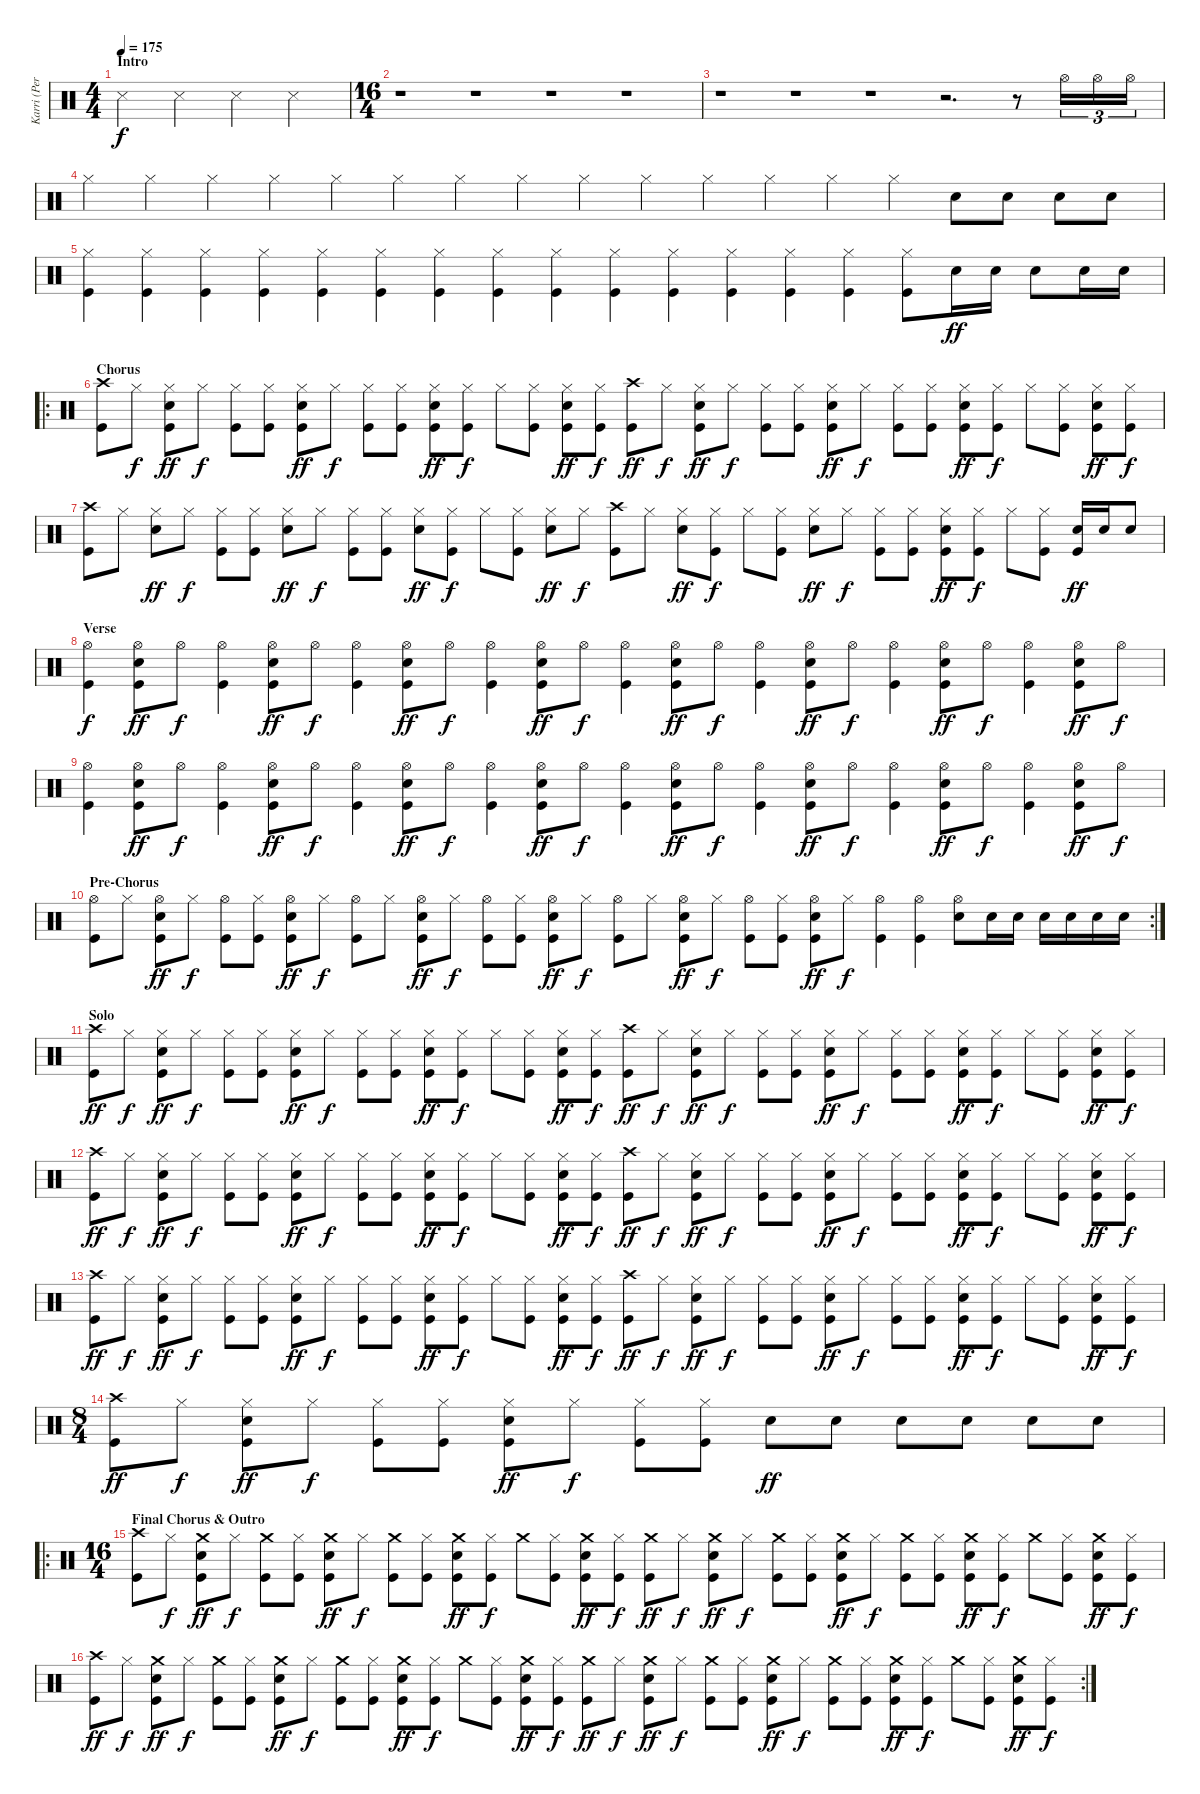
\track ("Karri (Percussion)" "Karri (Per") {instrument percussion}
\staff {score}
\articulation defaults
\ts (4 4)
\section ("" "Intro")
\tempo 175
\clef neutral
\ks c "Snare (side stick) 3".4{dy f} "Snare (side stick) 3".4 "Snare (side stick) 3".4 "Snare (side stick) 3".4
|
\ts (16 4)
r.1 r.1 r.1 r.1 |
r.1 r.1 r.1 r.2{d} r.8 "Hi-Hat (open)".16{tu (3 2)} "Hi-Hat (open)".16{tu (3 2)} "Hi-Hat (open)".16{tu (3 2)} |
"Hi-Hat (closed)".4 "Hi-Hat (closed)".4 "Hi-Hat (closed)".4 "Hi-Hat (closed)".4 "Hi-Hat (closed)".4 "Hi-Hat (closed)".4 "Hi-Hat (closed)".4 "Hi-Hat (closed)".4 "Hi-Hat (closed)".4 "Hi-Hat (closed)".4 "Hi-Hat (closed)".4 "Hi-Hat (closed)".4 "Hi-Hat (closed)".4 "Hi-Hat (closed)".4 "Snare (hit) 2".8 "Snare (hit) 2".8 "Snare (hit) 2".8 "Snare (hit) 2".8 |
("Hi-Hat (closed)" "Kick (hit)").4 ("Hi-Hat (closed)" "Kick (hit)").4 ("Hi-Hat (closed)" "Kick (hit)").4 ("Hi-Hat (closed)" "Kick (hit)").4 ("Hi-Hat (closed)" "Kick (hit)").4 ("Hi-Hat (closed)" "Kick (hit)").4 ("Hi-Hat (closed)" "Kick (hit)").4 ("Hi-Hat (closed)" "Kick (hit)").4 ("Hi-Hat (closed)" "Kick (hit)").4 ("Hi-Hat (closed)" "Kick (hit)").4 ("Hi-Hat (closed)" "Kick (hit)").4 ("Hi-Hat (closed)" "Kick (hit)").4 ("Hi-Hat (closed)" "Kick (hit)").4 ("Hi-Hat (closed)" "Kick (hit)").4 ("Hi-Hat (closed)" "Kick (hit)").8 "Snare (hit) 2".16{dy ff} "Snare (hit) 2".16 "Snare (hit) 2".8 "Snare (hit) 2".16 "Snare (hit) 2".16 |
\ro
\section ("" "Chorus")
("Crash high (hit)" "Kick (hit)").8 "Hi-Hat (closed)".8{dy f} ("Hi-Hat (closed)" "Snare (hit) 2" "Kick (hit)").8{dy ff} "Hi-Hat (closed)".8{dy f} ("Hi-Hat (closed)" "Kick (hit)").8 ("Hi-Hat (closed)" "Kick (hit)").8 ("Hi-Hat (closed)" "Snare (hit) 2" "Kick (hit)").8{dy ff} "Hi-Hat (closed)".8{dy f} ("Hi-Hat (closed)" "Kick (hit)").8 ("Hi-Hat (closed)" "Kick (hit)").8 ("Hi-Hat (closed)" "Snare (hit) 2" "Kick (hit)").8{dy ff} ("Hi-Hat (closed)" "Kick (hit)").8{dy f} "Hi-Hat (closed)".8 ("Hi-Hat (closed)" "Kick (hit)").8 ("Hi-Hat (closed)" "Snare (hit) 2" "Kick (hit)").8{dy ff} ("Hi-Hat (closed)" "Kick (hit)").8{dy f} ("Crash high (hit)" "Kick (hit)").8{dy ff} "Hi-Hat (closed)".8{dy f} ("Hi-Hat (closed)" "Snare (hit) 2" "Kick (hit)").8{dy ff} "Hi-Hat (closed)".8{dy f} ("Hi-Hat (closed)" "Kick (hit)").8 ("Hi-Hat (closed)" "Kick (hit)").8 ("Hi-Hat (closed)" "Snare (hit) 2" "Kick (hit)").8{dy ff} "Hi-Hat (closed)".8{dy f} ("Hi-Hat (closed)" "Kick (hit)").8 ("Hi-Hat (closed)" "Kick (hit)").8 ("Hi-Hat (closed)" "Snare (hit) 2" "Kick (hit)").8{dy ff} ("Hi-Hat (closed)" "Kick (hit)").8{dy f} "Hi-Hat (closed)".8 ("Hi-Hat (closed)" "Kick (hit)").8 ("Hi-Hat (closed)" "Snare (hit) 2" "Kick (hit)").8{dy ff} ("Hi-Hat (closed)" "Kick (hit)").8{dy f} |
("Crash high (hit)" "Kick (hit)").8 "Hi-Hat (closed)".8 ("Hi-Hat (closed)" "Snare (hit) 2").8{dy ff} "Hi-Hat (closed)".8{dy f} ("Hi-Hat (closed)" "Kick (hit)").8 ("Hi-Hat (closed)" "Kick (hit)").8 ("Hi-Hat (closed)" "Snare (hit) 2").8{dy ff} "Hi-Hat (closed)".8{dy f} ("Hi-Hat (closed)" "Kick (hit)").8 ("Hi-Hat (closed)" "Kick (hit)").8 ("Hi-Hat (closed)" "Snare (hit) 2").8{dy ff} ("Hi-Hat (closed)" "Kick (hit)").8{dy f} "Hi-Hat (closed)".8 ("Hi-Hat (closed)" "Kick (hit)").8 ("Hi-Hat (closed)" "Snare (hit) 2").8{dy ff} "Hi-Hat (closed)".8{dy f} ("Crash high (hit)" "Kick (hit)").8 "Hi-Hat (closed)".8 ("Hi-Hat (closed)" "Snare (hit) 2").8{dy ff} ("Hi-Hat (closed)" "Kick (hit)").8{dy f} "Hi-Hat (closed)".8 ("Hi-Hat (closed)" "Kick (hit)").8 ("Hi-Hat (closed)" "Snare (hit) 2").8{dy ff} "Hi-Hat (closed)".8{dy f} ("Hi-Hat (closed)" "Kick (hit)").8 ("Hi-Hat (closed)" "Kick (hit)").8 ("Hi-Hat (closed)" "Snare (hit) 2" "Kick (hit)").8{dy ff} ("Hi-Hat (closed)" "Kick (hit)").8{dy f} "Hi-Hat (closed)".8 ("Hi-Hat (closed)" "Kick (hit)").8 ("Snare (hit) 2" "Kick (hit)").16{dy ff} "Snare (hit) 2".16 "Snare (hit) 2".8 |
\section ("" "Verse")
("Hi-Hat (open)" "Kick (hit)").4{dy f} ("Hi-Hat (open)" "Snare (hit) 2" "Kick (hit)").8{dy ff} "Hi-Hat (open)".8{dy f} ("Hi-Hat (open)" "Kick (hit)").4 ("Hi-Hat (open)" "Snare (hit) 2" "Kick (hit)").8{dy ff} "Hi-Hat (open)".8{dy f} ("Hi-Hat (open)" "Kick (hit)").4 ("Hi-Hat (open)" "Snare (hit) 2" "Kick (hit)").8{dy ff} "Hi-Hat (open)".8{dy f} ("Hi-Hat (open)" "Kick (hit)").4 ("Hi-Hat (open)" "Snare (hit) 2" "Kick (hit)").8{dy ff} "Hi-Hat (open)".8{dy f} ("Hi-Hat (open)" "Kick (hit)").4 ("Hi-Hat (open)" "Snare (hit) 2" "Kick (hit)").8{dy ff} "Hi-Hat (open)".8{dy f} ("Hi-Hat (open)" "Kick (hit)").4 ("Hi-Hat (open)" "Snare (hit) 2" "Kick (hit)").8{dy ff} "Hi-Hat (open)".8{dy f} ("Hi-Hat (open)" "Kick (hit)").4 ("Hi-Hat (open)" "Snare (hit) 2" "Kick (hit)").8{dy ff} "Hi-Hat (open)".8{dy f} ("Hi-Hat (open)" "Kick (hit)").4 ("Hi-Hat (open)" "Snare (hit) 2" "Kick (hit)").8{dy ff} "Hi-Hat (open)".8{dy f} |
("Hi-Hat (open)" "Kick (hit)").4 ("Hi-Hat (open)" "Snare (hit) 2" "Kick (hit)").8{dy ff} "Hi-Hat (open)".8{dy f} ("Hi-Hat (open)" "Kick (hit)").4 ("Hi-Hat (open)" "Snare (hit) 2" "Kick (hit)").8{dy ff} "Hi-Hat (open)".8{dy f} ("Hi-Hat (open)" "Kick (hit)").4 ("Hi-Hat (open)" "Snare (hit) 2" "Kick (hit)").8{dy ff} "Hi-Hat (open)".8{dy f} ("Hi-Hat (open)" "Kick (hit)").4 ("Hi-Hat (open)" "Snare (hit) 2" "Kick (hit)").8{dy ff} "Hi-Hat (open)".8{dy f} ("Hi-Hat (open)" "Kick (hit)").4 ("Hi-Hat (open)" "Snare (hit) 2" "Kick (hit)").8{dy ff} "Hi-Hat (open)".8{dy f} ("Hi-Hat (open)" "Kick (hit)").4 ("Hi-Hat (open)" "Snare (hit) 2" "Kick (hit)").8{dy ff} "Hi-Hat (open)".8{dy f} ("Hi-Hat (open)" "Kick (hit)").4 ("Hi-Hat (open)" "Snare (hit) 2" "Kick (hit)").8{dy ff} "Hi-Hat (open)".8{dy f} ("Hi-Hat (open)" "Kick (hit)").4 ("Hi-Hat (open)" "Snare (hit) 2" "Kick (hit)").8{dy ff} "Hi-Hat (open)".8{dy f} |
\rc 2
\section ("" "Pre-Chorus")
("Hi-Hat (open)" "Kick (hit)").8 "Hi-Hat (closed)".8 ("Hi-Hat (open)" "Snare (hit) 2" "Kick (hit)").8{dy ff} "Hi-Hat (closed)".8{dy f} ("Hi-Hat (open)" "Kick (hit)").8 ("Hi-Hat (closed)" "Kick (hit)").8 ("Hi-Hat (open)" "Snare (hit) 2" "Kick (hit)").8{dy ff} "Hi-Hat (closed)".8{dy f} ("Hi-Hat (open)" "Kick (hit)").8 "Hi-Hat (closed)".8 ("Hi-Hat (open)" "Snare (hit) 2" "Kick (hit)").8{dy ff} "Hi-Hat (closed)".8{dy f} ("Hi-Hat (open)" "Kick (hit)").8 ("Hi-Hat (closed)" "Kick (hit)").8 ("Hi-Hat (open)" "Snare (hit) 2" "Kick (hit)").8{dy ff} "Hi-Hat (closed)".8{dy f} ("Hi-Hat (open)" "Kick (hit)").8 "Hi-Hat (closed)".8 ("Hi-Hat (open)" "Snare (hit) 2" "Kick (hit)").8{dy ff} "Hi-Hat (closed)".8{dy f} ("Hi-Hat (open)" "Kick (hit)").8 ("Hi-Hat (closed)" "Kick (hit)").8 ("Hi-Hat (open)" "Snare (hit) 2" "Kick (hit)").8{dy ff} "Hi-Hat (closed)".8{dy f} ("Hi-Hat (open)" "Kick (hit)").4 ("Hi-Hat (open)" "Kick (hit)").4 ("Hi-Hat (open)" "Snare (hit) 2").8 "Snare (hit) 2".16 "Snare (hit) 2".16 "Snare (hit) 2".16 "Snare (hit) 2".16 "Snare (hit) 2".16 "Snare (hit) 2".16 |
\section ("" "Solo")
("Crash high (hit)" "Kick (hit)").8{dy ff} "Hi-Hat (closed)".8{dy f} ("Hi-Hat (closed)" "Snare (hit) 2" "Kick (hit)").8{dy ff} "Hi-Hat (closed)".8{dy f} ("Hi-Hat (closed)" "Kick (hit)").8 ("Hi-Hat (closed)" "Kick (hit)").8 ("Hi-Hat (closed)" "Snare (hit) 2" "Kick (hit)").8{dy ff} "Hi-Hat (closed)".8{dy f} ("Hi-Hat (closed)" "Kick (hit)").8 ("Hi-Hat (closed)" "Kick (hit)").8 ("Hi-Hat (closed)" "Snare (hit) 2" "Kick (hit)").8{dy ff} ("Hi-Hat (closed)" "Kick (hit)").8{dy f} "Hi-Hat (closed)".8 ("Hi-Hat (closed)" "Kick (hit)").8 ("Hi-Hat (closed)" "Snare (hit) 2" "Kick (hit)").8{dy ff} ("Hi-Hat (closed)" "Kick (hit)").8{dy f} ("Crash high (hit)" "Kick (hit)").8{dy ff} "Hi-Hat (closed)".8{dy f} ("Hi-Hat (closed)" "Snare (hit) 2" "Kick (hit)").8{dy ff} "Hi-Hat (closed)".8{dy f} ("Hi-Hat (closed)" "Kick (hit)").8 ("Hi-Hat (closed)" "Kick (hit)").8 ("Hi-Hat (closed)" "Snare (hit) 2" "Kick (hit)").8{dy ff} "Hi-Hat (closed)".8{dy f} ("Hi-Hat (closed)" "Kick (hit)").8 ("Hi-Hat (closed)" "Kick (hit)").8 ("Hi-Hat (closed)" "Snare (hit) 2" "Kick (hit)").8{dy ff} ("Hi-Hat (closed)" "Kick (hit)").8{dy f} "Hi-Hat (closed)".8 ("Hi-Hat (closed)" "Kick (hit)").8 ("Hi-Hat (closed)" "Snare (hit) 2" "Kick (hit)").8{dy ff} ("Hi-Hat (closed)" "Kick (hit)").8{dy f} |
("Crash high (hit)" "Kick (hit)").8{dy ff} "Hi-Hat (closed)".8{dy f} ("Hi-Hat (closed)" "Snare (hit) 2" "Kick (hit)").8{dy ff} "Hi-Hat (closed)".8{dy f} ("Hi-Hat (closed)" "Kick (hit)").8 ("Hi-Hat (closed)" "Kick (hit)").8 ("Hi-Hat (closed)" "Snare (hit) 2" "Kick (hit)").8{dy ff} "Hi-Hat (closed)".8{dy f} ("Hi-Hat (closed)" "Kick (hit)").8 ("Hi-Hat (closed)" "Kick (hit)").8 ("Hi-Hat (closed)" "Snare (hit) 2" "Kick (hit)").8{dy ff} ("Hi-Hat (closed)" "Kick (hit)").8{dy f} "Hi-Hat (closed)".8 ("Hi-Hat (closed)" "Kick (hit)").8 ("Hi-Hat (closed)" "Snare (hit) 2" "Kick (hit)").8{dy ff} ("Hi-Hat (closed)" "Kick (hit)").8{dy f} ("Crash high (hit)" "Kick (hit)").8{dy ff} "Hi-Hat (closed)".8{dy f} ("Hi-Hat (closed)" "Snare (hit) 2" "Kick (hit)").8{dy ff} "Hi-Hat (closed)".8{dy f} ("Hi-Hat (closed)" "Kick (hit)").8 ("Hi-Hat (closed)" "Kick (hit)").8 ("Hi-Hat (closed)" "Snare (hit) 2" "Kick (hit)").8{dy ff} "Hi-Hat (closed)".8{dy f} ("Hi-Hat (closed)" "Kick (hit)").8 ("Hi-Hat (closed)" "Kick (hit)").8 ("Hi-Hat (closed)" "Snare (hit) 2" "Kick (hit)").8{dy ff} ("Hi-Hat (closed)" "Kick (hit)").8{dy f} "Hi-Hat (closed)".8 ("Hi-Hat (closed)" "Kick (hit)").8 ("Hi-Hat (closed)" "Snare (hit) 2" "Kick (hit)").8{dy ff} ("Hi-Hat (closed)" "Kick (hit)").8{dy f} |
("Crash high (hit)" "Kick (hit)").8{dy ff} "Hi-Hat (closed)".8{dy f} ("Hi-Hat (closed)" "Snare (hit) 2" "Kick (hit)").8{dy ff} "Hi-Hat (closed)".8{dy f} ("Hi-Hat (closed)" "Kick (hit)").8 ("Hi-Hat (closed)" "Kick (hit)").8 ("Hi-Hat (closed)" "Snare (hit) 2" "Kick (hit)").8{dy ff} "Hi-Hat (closed)".8{dy f} ("Hi-Hat (closed)" "Kick (hit)").8 ("Hi-Hat (closed)" "Kick (hit)").8 ("Hi-Hat (closed)" "Snare (hit) 2" "Kick (hit)").8{dy ff} ("Hi-Hat (closed)" "Kick (hit)").8{dy f} "Hi-Hat (closed)".8 ("Hi-Hat (closed)" "Kick (hit)").8 ("Hi-Hat (closed)" "Snare (hit) 2" "Kick (hit)").8{dy ff} ("Hi-Hat (closed)" "Kick (hit)").8{dy f} ("Crash high (hit)" "Kick (hit)").8{dy ff} "Hi-Hat (closed)".8{dy f} ("Hi-Hat (closed)" "Snare (hit) 2" "Kick (hit)").8{dy ff} "Hi-Hat (closed)".8{dy f} ("Hi-Hat (closed)" "Kick (hit)").8 ("Hi-Hat (closed)" "Kick (hit)").8 ("Hi-Hat (closed)" "Snare (hit) 2" "Kick (hit)").8{dy ff} "Hi-Hat (closed)".8{dy f} ("Hi-Hat (closed)" "Kick (hit)").8 ("Hi-Hat (closed)" "Kick (hit)").8 ("Hi-Hat (closed)" "Snare (hit) 2" "Kick (hit)").8{dy ff} ("Hi-Hat (closed)" "Kick (hit)").8{dy f} "Hi-Hat (closed)".8 ("Hi-Hat (closed)" "Kick (hit)").8 ("Hi-Hat (closed)" "Snare (hit) 2" "Kick (hit)").8{dy ff} ("Hi-Hat (closed)" "Kick (hit)").8{dy f} |
\ts (8 4)
("Crash high (hit)" "Kick (hit)").8{dy ff} "Hi-Hat (closed)".8{dy f} ("Hi-Hat (closed)" "Snare (hit) 2" "Kick (hit)").8{dy ff} "Hi-Hat (closed)".8{dy f} ("Hi-Hat (closed)" "Kick (hit)").8 ("Hi-Hat (closed)" "Kick (hit)").8 ("Hi-Hat (closed)" "Snare (hit) 2" "Kick (hit)").8{dy ff} "Hi-Hat (closed)".8{dy f} ("Hi-Hat (closed)" "Kick (hit)").8 ("Hi-Hat (closed)" "Kick (hit)").8 "Snare (hit) 2".8{dy ff} "Snare (hit) 2".8 "Snare (hit) 2".8 "Snare (hit) 2".8 "Snare (hit) 2".8 "Snare (hit) 2".8 |
\ro
\ts (16 4)
\section ("" "Final Chorus & Outro")
("Crash high (hit)" "Kick (hit)").8 "Hi-Hat (closed)".8{dy f} ("Crash medium (hit)" "Snare (hit) 2" "Kick (hit)").8{dy ff} "Hi-Hat (closed)".8{dy f} ("Crash medium (hit)" "Kick (hit)").8 ("Hi-Hat (closed)" "Kick (hit)").8 ("Crash medium (hit)" "Snare (hit) 2" "Kick (hit)").8{dy ff} "Hi-Hat (closed)".8{dy f} ("Crash medium (hit)" "Kick (hit)").8 ("Hi-Hat (closed)" "Kick (hit)").8 ("Crash medium (hit)" "Snare (hit) 2" "Kick (hit)").8{dy ff} ("Hi-Hat (closed)" "Kick (hit)").8{dy f} "Crash medium (hit)".8 ("Hi-Hat (closed)" "Kick (hit)").8 ("Crash medium (hit)" "Snare (hit) 2" "Kick (hit)").8{dy ff} ("Hi-Hat (closed)" "Kick (hit)").8{dy f} ("Crash medium (hit)" "Kick (hit)").8{dy ff} "Hi-Hat (closed)".8{dy f} ("Crash medium (hit)" "Snare (hit) 2" "Kick (hit)").8{dy ff} "Hi-Hat (closed)".8{dy f} ("Crash medium (hit)" "Kick (hit)").8 ("Hi-Hat (closed)" "Kick (hit)").8 ("Crash medium (hit)" "Snare (hit) 2" "Kick (hit)").8{dy ff} "Hi-Hat (closed)".8{dy f} ("Crash medium (hit)" "Kick (hit)").8 ("Hi-Hat (closed)" "Kick (hit)").8 ("Crash medium (hit)" "Snare (hit) 2" "Kick (hit)").8{dy ff} ("Hi-Hat (closed)" "Kick (hit)").8{dy f} "Crash medium (hit)".8 ("Hi-Hat (closed)" "Kick (hit)").8 ("Crash medium (hit)" "Snare (hit) 2" "Kick (hit)").8{dy ff} ("Hi-Hat (closed)" "Kick (hit)").8{dy f} |
\rc 2
("Crash high (hit)" "Kick (hit)").8{dy ff} "Hi-Hat (closed)".8{dy f} ("Crash medium (hit)" "Snare (hit) 2" "Kick (hit)").8{dy ff} "Hi-Hat (closed)".8{dy f} ("Crash medium (hit)" "Kick (hit)").8 ("Hi-Hat (closed)" "Kick (hit)").8 ("Crash medium (hit)" "Snare (hit) 2" "Kick (hit)").8{dy ff} "Hi-Hat (closed)".8{dy f} ("Crash medium (hit)" "Kick (hit)").8 ("Hi-Hat (closed)" "Kick (hit)").8 ("Crash medium (hit)" "Snare (hit) 2" "Kick (hit)").8{dy ff} ("Hi-Hat (closed)" "Kick (hit)").8{dy f} "Crash medium (hit)".8 ("Hi-Hat (closed)" "Kick (hit)").8 ("Crash medium (hit)" "Snare (hit) 2" "Kick (hit)").8{dy ff} ("Hi-Hat (closed)" "Kick (hit)").8{dy f} ("Crash medium (hit)" "Kick (hit)").8{dy ff} "Hi-Hat (closed)".8{dy f} ("Crash medium (hit)" "Snare (hit) 2" "Kick (hit)").8{dy ff} "Hi-Hat (closed)".8{dy f} ("Crash medium (hit)" "Kick (hit)").8 ("Hi-Hat (closed)" "Kick (hit)").8 ("Crash medium (hit)" "Snare (hit) 2" "Kick (hit)").8{dy ff} "Hi-Hat (closed)".8{dy f} ("Crash medium (hit)" "Kick (hit)").8 ("Hi-Hat (closed)" "Kick (hit)").8 ("Crash medium (hit)" "Snare (hit) 2" "Kick (hit)").8{dy ff} ("Hi-Hat (closed)" "Kick (hit)").8{dy f} "Crash medium (hit)".8 ("Hi-Hat (closed)" "Kick (hit)").8 ("Crash medium (hit)" "Snare (hit) 2" "Kick (hit)").8{dy ff} ("Hi-Hat (closed)" "Kick (hit)").8{dy f}
